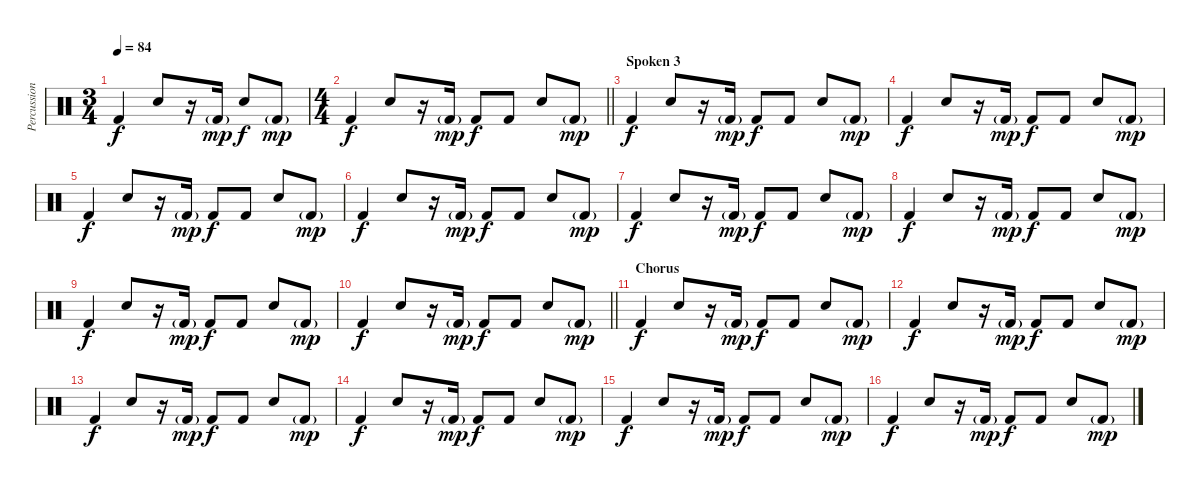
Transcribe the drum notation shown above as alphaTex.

\track ("Percussion" "Percussion") {instrument percussion}
\staff {score}
\articulation defaults
\ts (3 4)
\tempo 84
\clef neutral
\ks c "Kick (hit) 2".4{dy f} "Snare (hit) 2".8
r.16 "Kick (hit) 2"{g}.16{dy mp} "Snare (hit) 2".8{dy f} "Kick (hit) 2"{g}.8{dy mp} |
\ts (4 4)
\barLineRight lightlight "Kick (hit) 2".4{dy f} "Snare (hit) 2".8
r.16 "Kick (hit) 2"{g}.16{dy mp} "Kick (hit) 2".8{dy f} "Kick (hit) 2".8 "Snare (hit) 2".8 "Kick (hit) 2"{g}.8{dy mp} |
\section ("" "Spoken 3")
"Kick (hit) 2".4{dy f} "Snare (hit) 2".8 r.16 "Kick (hit) 2"{g}.16{dy mp} "Kick (hit) 2".8{dy f} "Kick (hit) 2".8 "Snare (hit) 2".8 "Kick (hit) 2"{g}.8{dy mp} |
"Kick (hit) 2".4{dy f} "Snare (hit) 2".8 r.16 "Kick (hit) 2"{g}.16{dy mp} "Kick (hit) 2".8{dy f} "Kick (hit) 2".8 "Snare (hit) 2".8 "Kick (hit) 2"{g}.8{dy mp} |
"Kick (hit) 2".4{dy f} "Snare (hit) 2".8 r.16 "Kick (hit) 2"{g}.16{dy mp} "Kick (hit) 2".8{dy f} "Kick (hit) 2".8 "Snare (hit) 2".8 "Kick (hit) 2"{g}.8{dy mp} |
"Kick (hit) 2".4{dy f} "Snare (hit) 2".8 r.16 "Kick (hit) 2"{g}.16{dy mp} "Kick (hit) 2".8{dy f} "Kick (hit) 2".8 "Snare (hit) 2".8 "Kick (hit) 2"{g}.8{dy mp} |
"Kick (hit) 2".4{dy f} "Snare (hit) 2".8 r.16 "Kick (hit) 2"{g}.16{dy mp} "Kick (hit) 2".8{dy f} "Kick (hit) 2".8 "Snare (hit) 2".8 "Kick (hit) 2"{g}.8{dy mp} |
"Kick (hit) 2".4{dy f} "Snare (hit) 2".8 r.16 "Kick (hit) 2"{g}.16{dy mp} "Kick (hit) 2".8{dy f} "Kick (hit) 2".8 "Snare (hit) 2".8 "Kick (hit) 2"{g}.8{dy mp} |
"Kick (hit) 2".4{dy f} "Snare (hit) 2".8 r.16 "Kick (hit) 2"{g}.16{dy mp} "Kick (hit) 2".8{dy f} "Kick (hit) 2".8 "Snare (hit) 2".8 "Kick (hit) 2"{g}.8{dy mp} |
\barLineRight lightlight "Kick (hit) 2".4{dy f} "Snare (hit) 2".8
r.16 "Kick (hit) 2"{g}.16{dy mp} "Kick (hit) 2".8{dy f} "Kick (hit) 2".8 "Snare (hit) 2".8 "Kick (hit) 2"{g}.8{dy mp} |
\section ("" "Chorus")
"Kick (hit) 2".4{dy f} "Snare (hit) 2".8 r.16 "Kick (hit) 2"{g}.16{dy mp} "Kick (hit) 2".8{dy f} "Kick (hit) 2".8 "Snare (hit) 2".8 "Kick (hit) 2"{g}.8{dy mp} |
"Kick (hit) 2".4{dy f} "Snare (hit) 2".8 r.16 "Kick (hit) 2"{g}.16{dy mp} "Kick (hit) 2".8{dy f} "Kick (hit) 2".8 "Snare (hit) 2".8 "Kick (hit) 2"{g}.8{dy mp} |
"Kick (hit) 2".4{dy f} "Snare (hit) 2".8 r.16 "Kick (hit) 2"{g}.16{dy mp} "Kick (hit) 2".8{dy f} "Kick (hit) 2".8 "Snare (hit) 2".8 "Kick (hit) 2"{g}.8{dy mp} |
"Kick (hit) 2".4{dy f} "Snare (hit) 2".8 r.16 "Kick (hit) 2"{g}.16{dy mp} "Kick (hit) 2".8{dy f} "Kick (hit) 2".8 "Snare (hit) 2".8 "Kick (hit) 2"{g}.8{dy mp} |
"Kick (hit) 2".4{dy f} "Snare (hit) 2".8 r.16 "Kick (hit) 2"{g}.16{dy mp} "Kick (hit) 2".8{dy f} "Kick (hit) 2".8 "Snare (hit) 2".8 "Kick (hit) 2"{g}.8{dy mp} |
"Kick (hit) 2".4{dy f} "Snare (hit) 2".8 r.16 "Kick (hit) 2"{g}.16{dy mp} "Kick (hit) 2".8{dy f} "Kick (hit) 2".8 "Snare (hit) 2".8 "Kick (hit) 2"{g}.8{dy mp}
